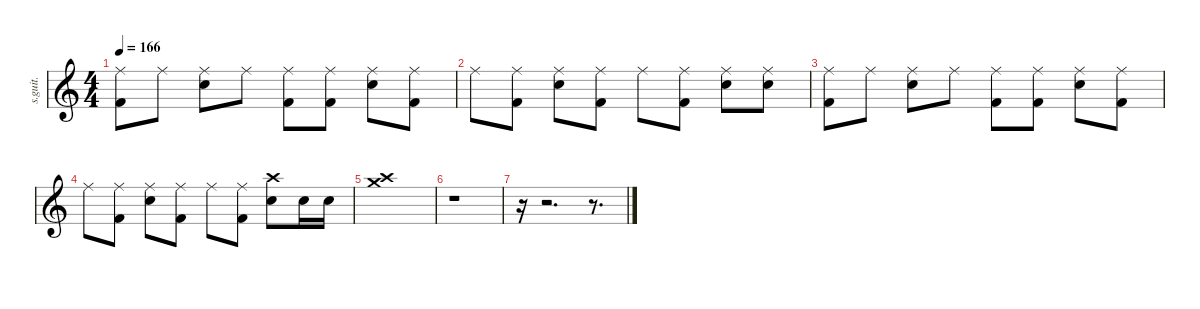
\defaultSystemsLayout 4
\hideDynamics
\bracketExtendMode nobrackets
\track ("Phil Selway" "s.guit.") {instrument percussion}
\staff {score}
\articulation defaults
\ts (4 4)
\tempo 166
\clef g2
\ks c
("Ride (middle)" "Kick (hit) 2").8{lyrics (0 "") lyrics (1 "") lyrics (2 "") lyrics (3 "") lyrics (4 "") dy f} "Ride (middle)".8{lyrics (0 "") lyrics (1 "") lyrics (2 "") lyrics (3 "") lyrics (4 "")} ("Ride (middle)" "Electric Snare (hit)").8{lyrics (0 "") lyrics (1 "") lyrics (2 "") lyrics (3 "") lyrics (4 "")} "Ride (middle)".8{lyrics (0 "") lyrics (1 "") lyrics (2 "") lyrics (3 "") lyrics (4 "")} ("Ride (middle)" "Kick (hit) 2").8{lyrics (0 "") lyrics (1 "") lyrics (2 "") lyrics (3 "") lyrics (4 "")} ("Ride (middle)" "Kick (hit) 2").8{lyrics (0 "") lyrics (1 "") lyrics (2 "") lyrics (3 "") lyrics (4 "")} ("Ride (middle)" "Electric Snare (hit)").8{lyrics (0 "") lyrics (1 "") lyrics (2 "") lyrics (3 "") lyrics (4 "")} ("Ride (middle)" "Kick (hit) 2").8{lyrics (0 "") lyrics (1 "") lyrics (2 "") lyrics (3 "") lyrics (4 "")} |
"Ride (middle)".8{lyrics (0 "") lyrics (1 "") lyrics (2 "") lyrics (3 "") lyrics (4 "")} ("Ride (middle)" "Kick (hit) 2").8{lyrics (0 "") lyrics (1 "") lyrics (2 "") lyrics (3 "") lyrics (4 "")} ("Ride (middle)" "Electric Snare (hit)").8{lyrics (0 "") lyrics (1 "") lyrics (2 "") lyrics (3 "") lyrics (4 "")} ("Ride (middle)" "Kick (hit) 2").8{lyrics (0 "") lyrics (1 "") lyrics (2 "") lyrics (3 "") lyrics (4 "")} "Ride (middle)".8{lyrics (0 "") lyrics (1 "") lyrics (2 "") lyrics (3 "") lyrics (4 "")} ("Ride (middle)" "Kick (hit) 2").8{lyrics (0 "") lyrics (1 "") lyrics (2 "") lyrics (3 "") lyrics (4 "")} ("Ride (middle)" "Electric Snare (hit)").8{lyrics (0 "") lyrics (1 "") lyrics (2 "") lyrics (3 "") lyrics (4 "")} ("Ride (middle)" "Electric Snare (hit)").8{lyrics (0 "") lyrics (1 "") lyrics (2 "") lyrics (3 "") lyrics (4 "")} |
("Ride (middle)" "Kick (hit) 2").8{lyrics (0 "") lyrics (1 "") lyrics (2 "") lyrics (3 "") lyrics (4 "")} "Ride (middle)".8{lyrics (0 "") lyrics (1 "") lyrics (2 "") lyrics (3 "") lyrics (4 "")} ("Ride (middle)" "Electric Snare (hit)").8{lyrics (0 "") lyrics (1 "") lyrics (2 "") lyrics (3 "") lyrics (4 "")} "Ride (middle)".8{lyrics (0 "") lyrics (1 "") lyrics (2 "") lyrics (3 "") lyrics (4 "")} ("Ride (middle)" "Kick (hit) 2").8{lyrics (0 "") lyrics (1 "") lyrics (2 "") lyrics (3 "") lyrics (4 "")} ("Ride (middle)" "Kick (hit) 2").8{lyrics (0 "") lyrics (1 "") lyrics (2 "") lyrics (3 "") lyrics (4 "")} ("Ride (middle)" "Electric Snare (hit)").8{lyrics (0 "") lyrics (1 "") lyrics (2 "") lyrics (3 "") lyrics (4 "")} ("Ride (middle)" "Kick (hit) 2").8{lyrics (0 "") lyrics (1 "") lyrics (2 "") lyrics (3 "") lyrics (4 "")} |
"Ride (middle)".8{lyrics (0 "") lyrics (1 "") lyrics (2 "") lyrics (3 "") lyrics (4 "")} ("Ride (middle)" "Kick (hit) 2").8{lyrics (0 "") lyrics (1 "") lyrics (2 "") lyrics (3 "") lyrics (4 "")} ("Ride (middle)" "Electric Snare (hit)").8{lyrics (0 "") lyrics (1 "") lyrics (2 "") lyrics (3 "") lyrics (4 "")} ("Ride (middle)" "Kick (hit) 2").8{lyrics (0 "") lyrics (1 "") lyrics (2 "") lyrics (3 "") lyrics (4 "")} "Ride (middle)".8{lyrics (0 "") lyrics (1 "") lyrics (2 "") lyrics (3 "") lyrics (4 "")} ("Ride (middle)" "Kick (hit) 2").8{lyrics (0 "") lyrics (1 "") lyrics (2 "") lyrics (3 "") lyrics (4 "")} ("Crash high (hit)" "Electric Snare (hit)").8{lyrics (0 "") lyrics (1 "") lyrics (2 "") lyrics (3 "") lyrics (4 "")} "Electric Snare (hit)".16{lyrics (0 "") lyrics (1 "") lyrics (2 "") lyrics (3 "") lyrics (4 "") dy mf} "Electric Snare (hit)".16{lyrics (0 "") lyrics (1 "") lyrics (2 "") lyrics (3 "") lyrics (4 "")} |
("Crash high (hit)" "Crash medium (hit)").1{lyrics (0 "") lyrics (1 "") lyrics (2 "") lyrics (3 "") lyrics (4 "") dy ff} |
r.1 |
r.16 r.2{d} r.8{d}
